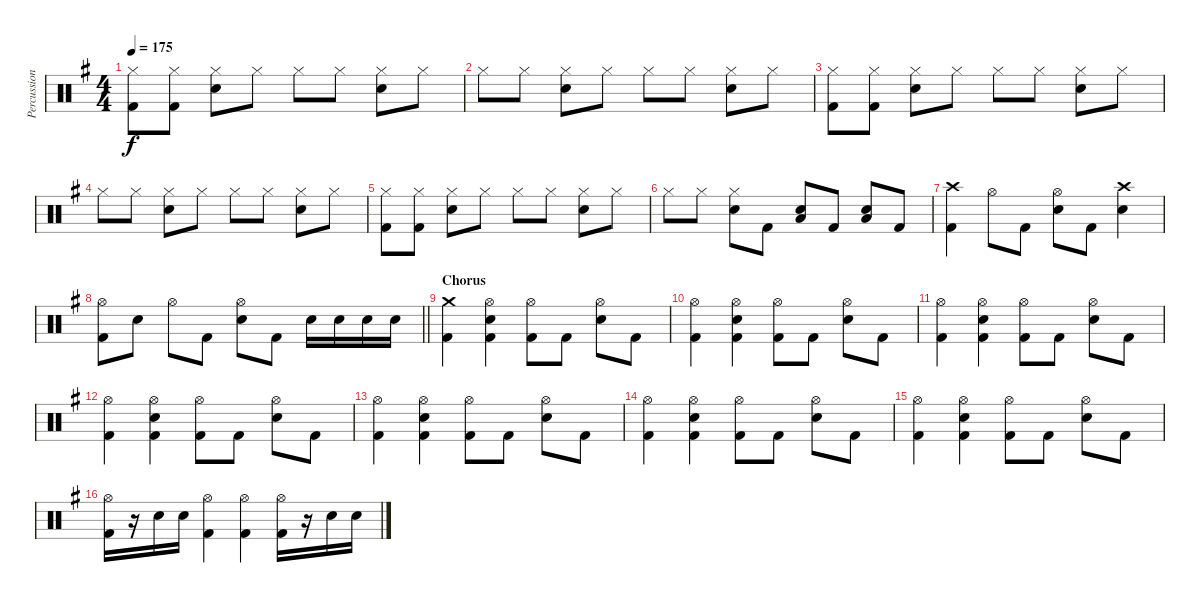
\track ("Percussion" "Percussion") {instrument percussion}
\staff {score}
\articulation defaults
\ts (4 4)
\tempo 175
\clef neutral
\ks g
("Hi-Hat (closed)" "Kick (hit) 2").8{dy f} ("Hi-Hat (closed)" "Kick (hit) 2").8 ("Hi-Hat (closed)" "Snare (hit) 2").8 "Hi-Hat (closed)".8 "Hi-Hat (closed)".8 "Hi-Hat (closed)".8 ("Hi-Hat (closed)" "Snare (hit) 2").8 "Hi-Hat (closed)".8 |
"Hi-Hat (closed)".8 "Hi-Hat (closed)".8 ("Hi-Hat (closed)" "Snare (hit) 2").8 "Hi-Hat (closed)".8 "Hi-Hat (closed)".8 "Hi-Hat (closed)".8 ("Hi-Hat (closed)" "Snare (hit) 2").8 "Hi-Hat (closed)".8 |
("Hi-Hat (closed)" "Kick (hit) 2").8 ("Hi-Hat (closed)" "Kick (hit) 2").8 ("Hi-Hat (closed)" "Snare (hit) 2").8 "Hi-Hat (closed)".8 "Hi-Hat (closed)".8 "Hi-Hat (closed)".8 ("Hi-Hat (closed)" "Snare (hit) 2").8 "Hi-Hat (closed)".8 |
"Hi-Hat (closed)".8 "Hi-Hat (closed)".8 ("Hi-Hat (closed)" "Snare (hit) 2").8 "Hi-Hat (closed)".8 "Hi-Hat (closed)".8 "Hi-Hat (closed)".8 ("Hi-Hat (closed)" "Snare (hit) 2").8 "Hi-Hat (closed)".8 |
("Hi-Hat (closed)" "Kick (hit) 2").8 ("Hi-Hat (closed)" "Kick (hit) 2").8 ("Hi-Hat (closed)" "Snare (hit) 2").8 "Hi-Hat (closed)".8 "Hi-Hat (closed)".8 "Hi-Hat (closed)".8 ("Hi-Hat (closed)" "Snare (hit) 2").8 "Hi-Hat (closed)".8 |
"Hi-Hat (closed)".8 "Hi-Hat (closed)".8 ("Hi-Hat (closed)" "Snare (hit) 2").8 "Kick (hit) 2".8 ("Snare (hit) 2" "Low Floor Tom (hit)").8 "Kick (hit) 2".8 ("Snare (hit) 2" "Low Floor Tom (hit)").8 "Kick (hit) 2".8 |
("Crash high (hit)" "Kick (hit) 2").4 "Hi-Hat (open)".8 "Kick (hit) 2".8 ("Hi-Hat (open)" "Snare (hit) 2").8 "Kick (hit) 2".8 ("Crash high (hit)" "Snare (hit) 2").4 |
\barLineRight lightlight
("Hi-Hat (open)" "Kick (hit) 2").8 "Snare (hit) 2".8 "Hi-Hat (open)".8 "Kick (hit) 2".8 ("Hi-Hat (open)" "Snare (hit) 2").8 "Kick (hit) 2".8 "Snare (hit) 2".16 "Snare (hit) 2".16 "Snare (hit) 2".16 "Snare (hit) 2".16 |
\section ("" "Chorus")
("Crash medium (hit)" "Kick (hit) 2").4 ("Hi-Hat (open)" "Snare (hit) 2" "Kick (hit) 2").4 ("Hi-Hat (open)" "Kick (hit) 2").8 "Kick (hit) 2".8 ("Hi-Hat (open)" "Snare (hit) 2").8 "Kick (hit) 2".8 |
("Hi-Hat (open)" "Kick (hit) 2").4 ("Hi-Hat (open)" "Snare (hit) 2" "Kick (hit) 2").4 ("Hi-Hat (open)" "Kick (hit) 2").8 "Kick (hit) 2".8 ("Hi-Hat (open)" "Snare (hit) 2").8 "Kick (hit) 2".8 |
("Hi-Hat (open)" "Kick (hit) 2").4 ("Hi-Hat (open)" "Snare (hit) 2" "Kick (hit) 2").4 ("Hi-Hat (open)" "Kick (hit) 2").8 "Kick (hit) 2".8 ("Hi-Hat (open)" "Snare (hit) 2").8 "Kick (hit) 2".8 |
("Hi-Hat (open)" "Kick (hit) 2").4 ("Hi-Hat (open)" "Snare (hit) 2" "Kick (hit) 2").4 ("Hi-Hat (open)" "Kick (hit) 2").8 "Kick (hit) 2".8 ("Hi-Hat (open)" "Snare (hit) 2").8 "Kick (hit) 2".8 |
("Hi-Hat (open)" "Kick (hit) 2").4 ("Hi-Hat (open)" "Snare (hit) 2" "Kick (hit) 2").4 ("Hi-Hat (open)" "Kick (hit) 2").8 "Kick (hit) 2".8 ("Hi-Hat (open)" "Snare (hit) 2").8 "Kick (hit) 2".8 |
("Hi-Hat (open)" "Kick (hit) 2").4 ("Hi-Hat (open)" "Snare (hit) 2" "Kick (hit) 2").4 ("Hi-Hat (open)" "Kick (hit) 2").8 "Kick (hit) 2".8 ("Hi-Hat (open)" "Snare (hit) 2").8 "Kick (hit) 2".8 |
("Hi-Hat (open)" "Kick (hit) 2").4 ("Hi-Hat (open)" "Snare (hit) 2" "Kick (hit) 2").4 ("Hi-Hat (open)" "Kick (hit) 2").8 "Kick (hit) 2".8 ("Hi-Hat (open)" "Snare (hit) 2").8 "Kick (hit) 2".8 |
("Hi-Hat (open)" "Kick (hit) 2").16 r.16 "Snare (hit) 2".16 "Snare (hit) 2".16 ("Hi-Hat (open)" "Kick (hit) 2").4 ("Hi-Hat (open)" "Kick (hit) 2").4 ("Hi-Hat (open)" "Kick (hit) 2").16 r.16 "Snare (hit) 2".16 "Snare (hit) 2".16
